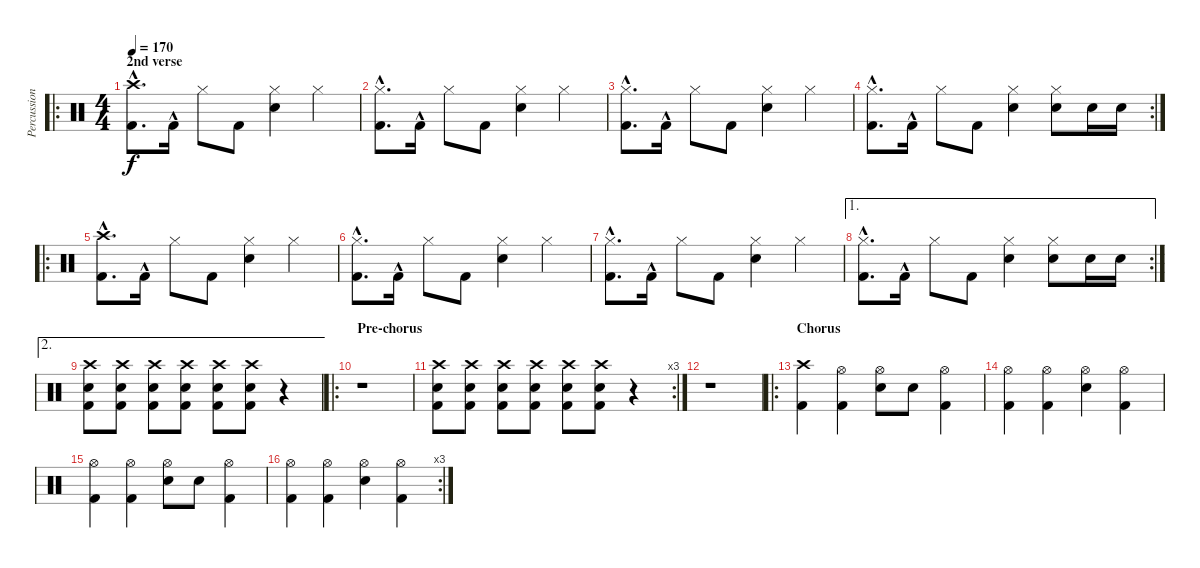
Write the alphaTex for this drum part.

\track ("Percussion" "Percussion") {instrument percussion}
\staff {score}
\articulation defaults
\ro
\ts (4 4)
\section ("" "2nd verse")
\tempo 170
\clef neutral
\ks c
("Crash high (hit)" "Kick (hit) 2"{hac}).8{d dy f} "Kick (hit) 2"{hac}.16 "Hi-Hat (closed)".8 "Kick (hit) 2".8 ("Hi-Hat (closed)" "Electric Snare (hit)").4 "Hi-Hat (closed)".4 |
("Hi-Hat (closed)" "Kick (hit) 2"{hac}).8{d} "Kick (hit) 2"{hac}.16 "Hi-Hat (closed)".8 "Kick (hit) 2".8 ("Hi-Hat (closed)" "Electric Snare (hit)").4 "Hi-Hat (closed)".4 |
("Hi-Hat (closed)" "Kick (hit) 2"{hac}).8{d} "Kick (hit) 2"{hac}.16 "Hi-Hat (closed)".8 "Kick (hit) 2".8 ("Hi-Hat (closed)" "Electric Snare (hit)").4 "Hi-Hat (closed)".4 |
\rc 2
("Hi-Hat (closed)" "Kick (hit) 2"{hac}).8{d} "Kick (hit) 2"{hac}.16 "Hi-Hat (closed)".8 "Kick (hit) 2".8 ("Hi-Hat (closed)" "Electric Snare (hit)").4 ("Hi-Hat (closed)" "Electric Snare (hit)").8 "Electric Snare (hit)".16 "Electric Snare (hit)".16 |
\ro
("Crash high (hit)" "Kick (hit) 2"{hac}).8{d} "Kick (hit) 2"{hac}.16 "Hi-Hat (closed)".8 "Kick (hit) 2".8 ("Hi-Hat (closed)" "Electric Snare (hit)").4 "Hi-Hat (closed)".4 |
("Hi-Hat (closed)" "Kick (hit) 2"{hac}).8{d} "Kick (hit) 2"{hac}.16 "Hi-Hat (closed)".8 "Kick (hit) 2".8 ("Hi-Hat (closed)" "Electric Snare (hit)").4 "Hi-Hat (closed)".4 |
("Hi-Hat (closed)" "Kick (hit) 2"{hac}).8{d} "Kick (hit) 2"{hac}.16 "Hi-Hat (closed)".8 "Kick (hit) 2".8 ("Hi-Hat (closed)" "Electric Snare (hit)").4 "Hi-Hat (closed)".4 |
\ae 1
\rc 2
("Hi-Hat (closed)" "Kick (hit) 2"{hac}).8{d} "Kick (hit) 2"{hac}.16 "Hi-Hat (closed)".8 "Kick (hit) 2".8 ("Hi-Hat (closed)" "Electric Snare (hit)").4 ("Hi-Hat (closed)" "Electric Snare (hit)").8 "Electric Snare (hit)".16 "Electric Snare (hit)".16 |
\ae 2
("Crash high (hit)" "Electric Snare (hit)" "Kick (hit) 2").8 ("Crash high (hit)" "Electric Snare (hit)" "Kick (hit) 2").8 ("Crash high (hit)" "Electric Snare (hit)" "Kick (hit) 2").8 ("Crash high (hit)" "Electric Snare (hit)" "Kick (hit) 2").8 ("Crash high (hit)" "Electric Snare (hit)" "Kick (hit) 2").8 ("Crash high (hit)" "Electric Snare (hit)" "Kick (hit) 2").8 r.4 |
\ro
\section ("" "Pre-chorus")
r.1 |
\rc 3
("Crash high (hit)" "Electric Snare (hit)" "Kick (hit) 2").8 ("Crash high (hit)" "Electric Snare (hit)" "Kick (hit) 2").8 ("Crash high (hit)" "Electric Snare (hit)" "Kick (hit) 2").8 ("Crash high (hit)" "Electric Snare (hit)" "Kick (hit) 2").8 ("Crash high (hit)" "Electric Snare (hit)" "Kick (hit) 2").8 ("Crash high (hit)" "Electric Snare (hit)" "Kick (hit) 2").8 r.4 |
r.1 |
\ro
\section ("" "Chorus")
("Crash high (hit)" "Kick (hit) 2").4 ("Hi-Hat (open)" "Kick (hit) 2").4 ("Hi-Hat (open)" "Electric Snare (hit)").8 "Electric Snare (hit)".8 ("Hi-Hat (open)" "Kick (hit) 2").4 |
("Hi-Hat (open)" "Kick (hit) 2").4 ("Hi-Hat (open)" "Kick (hit) 2").4 ("Hi-Hat (open)" "Electric Snare (hit)").4 ("Hi-Hat (open)" "Kick (hit) 2").4 |
("Hi-Hat (open)" "Kick (hit) 2").4 ("Hi-Hat (open)" "Kick (hit) 2").4 ("Hi-Hat (open)" "Electric Snare (hit)").8 "Electric Snare (hit)".8 ("Hi-Hat (open)" "Kick (hit) 2").4 |
\rc 3
("Hi-Hat (open)" "Kick (hit) 2").4 ("Hi-Hat (open)" "Kick (hit) 2").4 ("Hi-Hat (open)" "Electric Snare (hit)").4 ("Hi-Hat (open)" "Kick (hit) 2").4
